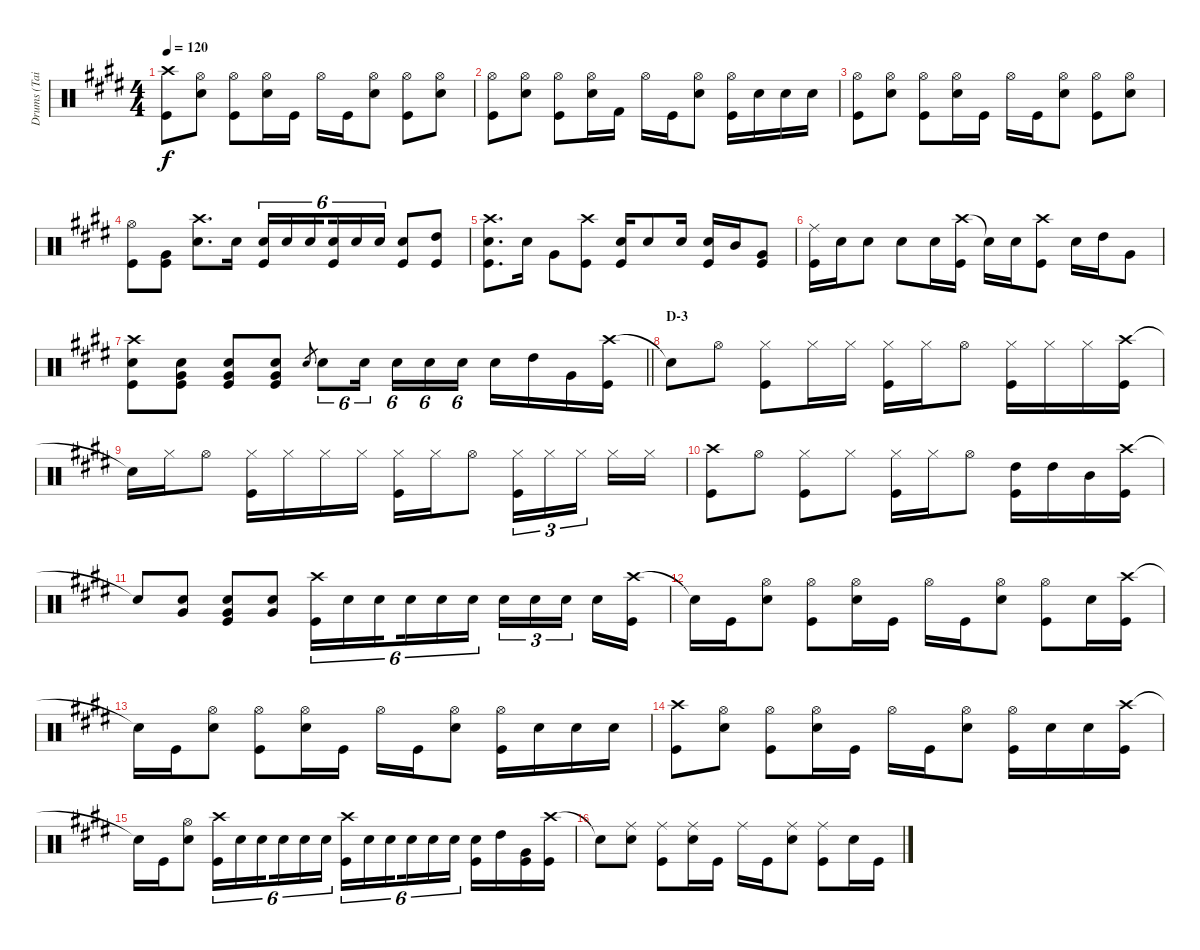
\track ("Drums (Tainaka Ritsu)" "Drums (Tai") {instrument percussion}
\staff {score}
\articulation defaults
\ts (4 4)
\tempo 120
\clef neutral
\ks e
("Crash high (hit)" "Kick (hit)").8{dy f} ("Hi-Hat (open)" "Snare (hit) 2").8 ("Hi-Hat (open)" "Kick (hit)").8 ("Hi-Hat (open)" "Snare (hit) 2").16 "Kick (hit)".16 "Hi-Hat (open)".16 "Kick (hit)".16 ("Hi-Hat (open)" "Snare (hit) 2").8 ("Hi-Hat (open)" "Kick (hit)").8 ("Hi-Hat (open)" "Snare (hit) 2").8 |
("Hi-Hat (open)" "Kick (hit)").8 ("Hi-Hat (open)" "Snare (hit) 2").8 ("Hi-Hat (open)" "Kick (hit)").8 ("Hi-Hat (open)" "Snare (hit) 2").16 "Kick (hit) 2".16 "Hi-Hat (open)".16 "Kick (hit)".16 ("Hi-Hat (open)" "Snare (hit) 2").8 ("Hi-Hat (open)" "Kick (hit)").16 "Snare (hit) 2".16 "Snare (hit) 2".16 "Snare (hit) 2".16 |
("Hi-Hat (open)" "Kick (hit)").8 ("Hi-Hat (open)" "Snare (hit) 2").8 ("Hi-Hat (open)" "Kick (hit)").8 ("Hi-Hat (open)" "Snare (hit) 2").16 "Kick (hit)".16 "Hi-Hat (open)".16 "Kick (hit)".16 ("Hi-Hat (open)" "Snare (hit) 2").8 ("Hi-Hat (open)" "Kick (hit)").8 ("Hi-Hat (open)" "Snare (hit) 2").8 |
("Hi-Hat (open)" "Kick (hit)").8 ("Very Low Tom (hit)" "Kick (hit)").8 ("Crash high (hit)" "Snare (hit) 2").8{d} "Snare (hit) 2".16 ("Snare (hit) 2" "Kick (hit)").16{tu (6 4)} "Snare (hit) 2".16{tu (6 4)} "Snare (hit) 2".16{tu (6 4) beam splitsecondary} ("Snare (hit) 2" "Kick (hit)").16{tu (6 4)} "Snare (hit) 2".16{tu (6 4)} "Snare (hit) 2".16{tu (6 4)} ("Snare (hit) 2" "Kick (hit)").8 ("High Tom (hit)" "Kick (hit)").8 |
("Crash high (hit)" "Snare (hit) 2" "Kick (hit)").8{d} "Snare (hit) 2".16 "Very Low Tom (hit)".8 ("Crash high (hit)" "Kick (hit)").8 ("Snare (hit) 2" "Kick (hit)").16 "Snare (hit) 2".8 "Snare (hit) 2".16 ("Snare (hit) 2" "Kick (hit)").16 "Mid Tom (hit)".16 ("Very Low Tom (hit)" "Kick (hit)").8 |
("Ride (middle)" "Kick (hit)").16 "Snare (hit) 2".16 "Snare (hit) 2".8 "Snare (hit) 2".8 "Snare (hit) 2".16 ("Crash high (hit)" "Kick (hit)").16 "Snare (hit)"{t}.16 "Snare (hit) 2".16 ("Crash high (hit)" "Kick (hit)").8 "Snare (hit) 2".16 "High Tom (hit)".16 "Very Low Tom (hit)".8 |
\barLineRight lightlight
("Crash high (hit)" "Snare (hit) 2" "Kick (hit)").8 ("Snare (hit) 2" "Very Low Tom (hit)" "Kick (hit)").8 ("Snare (hit) 2" "Very Low Tom (hit)" "Kick (hit)").8 ("Snare (hit) 2" "Very Low Tom (hit)" "Kick (hit)").8 "Snare (hit) 2".8{gr} "Snare (hit) 2".8{tu (6 4)} "Snare (hit) 2".16{tu (6 4) beam splitsecondary} "Snare (hit) 2".16{tu (6 4)} "Snare (hit) 2".16{tu (6 4)} "Snare (hit) 2".16{tu (6 4)} "Snare (hit) 2".16 "High Tom (hit)".16 "Very Low Tom (hit)".16 ("Crash high (hit)" "Kick (hit)").16 |
\section ("" "D-3")
"Snare (hit)"{t}.8 "Hi-Hat (open)".8 ("Hi-Hat (closed)" "Kick (hit)").8 "Hi-Hat (closed)".16 "Hi-Hat (closed)".16 ("Hi-Hat (closed)" "Kick (hit)").16 "Hi-Hat (closed)".16 "Hi-Hat (open)".8 ("Hi-Hat (closed)" "Kick (hit)").16 "Hi-Hat (closed)".16 "Hi-Hat (closed)".16 ("Crash high (hit)" "Kick (hit)").16 |
"Snare (hit)"{t}.16 "Hi-Hat (closed)".16 "Hi-Hat (open)".8 ("Hi-Hat (closed)" "Kick (hit)").16 "Hi-Hat (closed)".16 "Hi-Hat (closed)".16 "Hi-Hat (closed)".16 ("Hi-Hat (closed)" "Kick (hit)").16 "Hi-Hat (closed)".16 "Hi-Hat (open)".8 ("Hi-Hat (closed)" "Kick (hit)").16{tu (3 2)} "Hi-Hat (closed)".16{tu (3 2)} "Hi-Hat (closed)".16{tu (3 2) beam splitsecondary} "Hi-Hat (closed)".16 "Hi-Hat (closed)".16 |
("Crash high (hit)" "Kick (hit)").8 "Hi-Hat (open)".8 ("Hi-Hat (closed)" "Kick (hit)").8 "Hi-Hat (closed)".8 ("Hi-Hat (closed)" "Kick (hit)").16 "Hi-Hat (closed)".16 "Hi-Hat (open)".8 ("High Tom (hit)" "Kick (hit)").16 "High Tom (hit)".16 "Mid Tom (hit)".16 ("Crash high (hit)" "Kick (hit)").16 |
"Snare (hit)"{t}.8 ("Snare (hit) 2" "Very Low Tom (hit)").8 ("Snare (hit) 2" "Very Low Tom (hit)" "Kick (hit)").8 ("Snare (hit) 2" "Very Low Tom (hit)").8 ("Crash high (hit)" "Kick (hit)").16{tu (6 4)} "Snare (hit) 2".16{tu (6 4)} "Snare (hit) 2".16{tu (6 4) beam splitsecondary} "Snare (hit) 2".16{tu (6 4)} "Snare (hit) 2".16{tu (6 4)} "Snare (hit) 2".16{tu (6 4)} "Snare (hit) 2".16{tu (3 2)} "Snare (hit) 2".16{tu (3 2)} "Snare (hit) 2".16{tu (3 2) beam splitsecondary} "Snare (hit) 2".16 ("Crash high (hit)" "Kick (hit)").16 |
"Snare (hit)"{t}.16 "Kick (hit)".16 ("Hi-Hat (open)" "Snare (hit) 2").8 ("Hi-Hat (open)" "Kick (hit)").8 ("Hi-Hat (open)" "Snare (hit) 2").16 "Kick (hit)".16 "Hi-Hat (open)".16 "Kick (hit)".16 ("Hi-Hat (open)" "Snare (hit) 2").8 ("Hi-Hat (open)" "Kick (hit)").8 "Snare (hit) 2".16 ("Crash high (hit)" "Kick (hit)").16 |
"Snare (hit)"{t}.16 "Kick (hit)".16 ("Hi-Hat (open)" "Snare (hit) 2").8 ("Hi-Hat (open)" "Kick (hit)").8 ("Hi-Hat (open)" "Snare (hit) 2").16 "Kick (hit)".16 "Hi-Hat (open)".16 "Kick (hit)".16 ("Hi-Hat (open)" "Snare (hit) 2").8 ("Hi-Hat (open)" "Kick (hit)").16 "Snare (hit) 2".16 "Snare (hit) 2".16 "Snare (hit) 2".16 |
("Crash high (hit)" "Kick (hit)").8 ("Hi-Hat (open)" "Snare (hit) 2").8 ("Hi-Hat (open)" "Kick (hit)").8 ("Hi-Hat (open)" "Snare (hit) 2").16 "Kick (hit)".16 "Hi-Hat (open)".16 "Kick (hit)".16 ("Hi-Hat (open)" "Snare (hit) 2").8 ("Hi-Hat (open)" "Kick (hit)").16 "Snare (hit) 2".16 "Snare (hit) 2".16 ("Crash high (hit)" "Kick (hit)").16 |
"Snare (hit)"{t}.16 "Kick (hit)".16 ("Hi-Hat (open)" "Snare (hit) 2").8 ("Crash high (hit)" "Kick (hit)").16{tu (6 4)} "Snare (hit) 2".16{tu (6 4)} "Snare (hit) 2".16{tu (6 4) beam splitsecondary} "Snare (hit) 2".16{tu (6 4)} "Snare (hit) 2".16{tu (6 4)} "Snare (hit) 2".16{tu (6 4)} ("Crash high (hit)" "Kick (hit)").16{tu (6 4)} "Snare (hit) 2".16{tu (6 4)} "Snare (hit) 2".16{tu (6 4) beam splitsecondary} "Snare (hit) 2".16{tu (6 4)} "Snare (hit) 2".16{tu (6 4)} "Snare (hit) 2".16{tu (6 4)} ("Snare (hit) 2" "Kick (hit)").16 "High Tom (hit)".16 ("Very Low Tom (hit)" "Kick (hit)").16 ("Crash high (hit)" "Kick (hit)").16 |
"Snare (hit)"{t}.8 ("Ride (middle)" "Snare (hit) 2").8 ("Ride (middle)" "Kick (hit)").8 ("Ride (middle)" "Snare (hit) 2").16 "Kick (hit)".16 "Ride (middle)".16 "Kick (hit)".16 ("Ride (middle)" "Snare (hit) 2").8 ("Ride (middle)" "Kick (hit)").8 "Snare (hit) 2".16 "Kick (hit)".16
